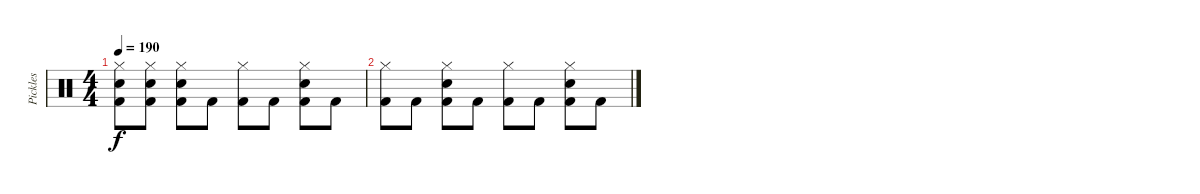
\track ("Pickles" "Pickles") {instrument percussion}
\staff {score}
\articulation defaults
\ts (4 4)
\tempo 190
\clef neutral
\ks c
("Hi-Hat (closed)" "Electric Snare (hit)" "Kick (hit) 2").8{dy f} ("Hi-Hat (closed)" "Electric Snare (hit)" "Kick (hit) 2").8 ("Hi-Hat (closed)" "Electric Snare (hit)" "Kick (hit) 2").8 "Kick (hit) 2".8 ("Hi-Hat (closed)" "Kick (hit) 2").8 "Kick (hit) 2".8 ("Hi-Hat (closed)" "Electric Snare (hit)" "Kick (hit) 2").8 "Kick (hit) 2".8 |
("Hi-Hat (closed)" "Kick (hit) 2").8 "Kick (hit) 2".8 ("Hi-Hat (closed)" "Electric Snare (hit)" "Kick (hit) 2").8 "Kick (hit) 2".8 ("Hi-Hat (closed)" "Kick (hit) 2").8 "Kick (hit) 2".8 ("Hi-Hat (closed)" "Electric Snare (hit)" "Kick (hit) 2").8 "Kick (hit) 2".8
